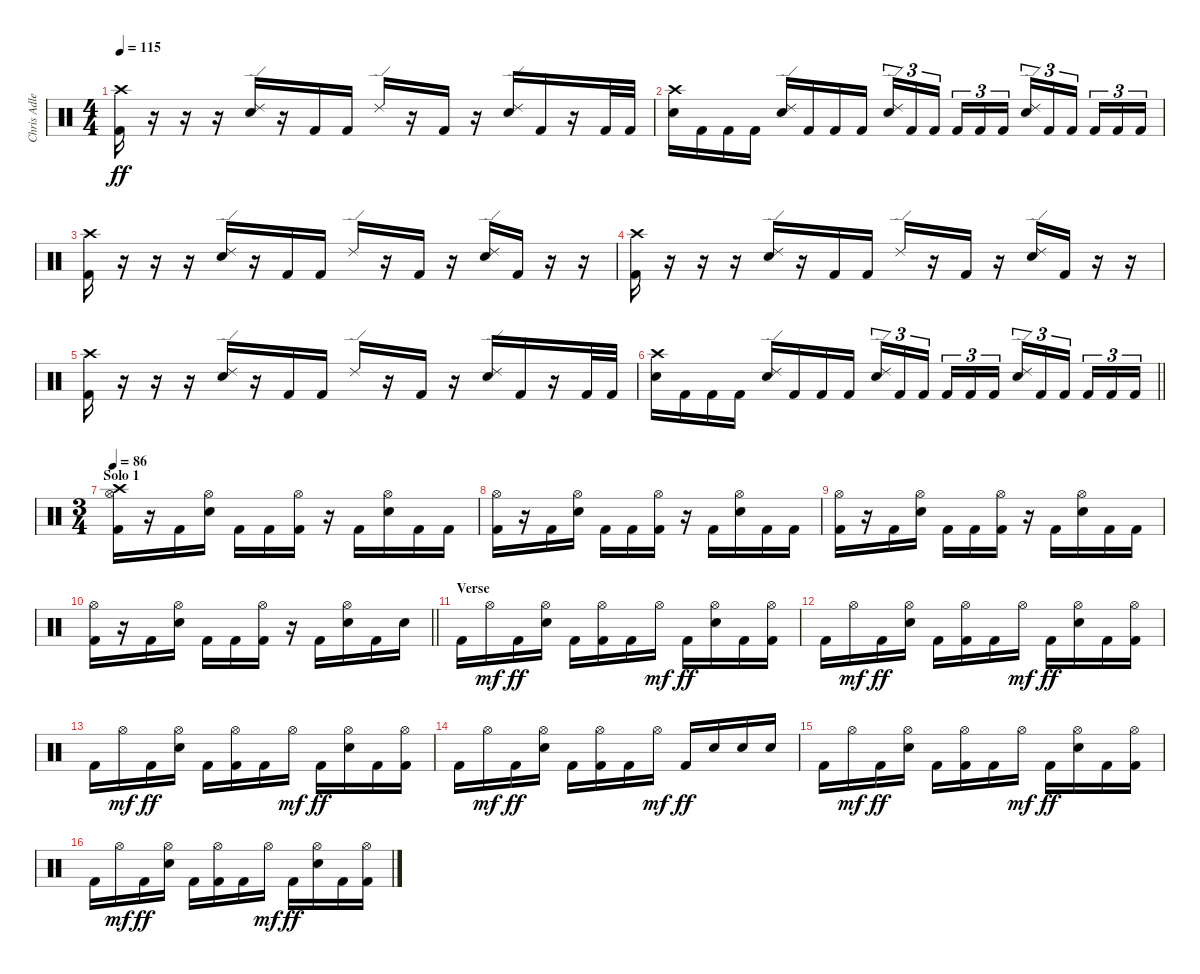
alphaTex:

\track ("Chris Adler" "Chris Adle") {instrument percussion}
\staff {score}
\articulation defaults
\ts (4 4)
\tempo 115
\clef neutral
\ks c
("Crash high (hit)" "Kick (hit) 2").16{dy ff} r.16 r.16 r.16 ("Ride (edge) 2" "Snare (hit) 2").16 r.16 "Kick (hit) 2".16 "Kick (hit) 2".16 "Ride (edge) 2".16 r.16 "Kick (hit) 2".16 r.16 ("Ride (edge) 2" "Snare (hit) 2").16 "Kick (hit) 2".16 r.16 "Kick (hit) 2".32 "Kick (hit) 2".32 |
("Crash high (hit)" "Snare (hit) 2").16 "Kick (hit) 2".16 "Kick (hit) 2".16 "Kick (hit) 2".16 ("Ride (edge) 2" "Snare (hit) 2").16 "Kick (hit) 2".16 "Kick (hit) 2".16 "Kick (hit) 2".16 ("Ride (edge) 2" "Snare (hit) 2").16{tu (3 2)} "Kick (hit) 2".16{tu (3 2)} "Kick (hit) 2".16{tu (3 2) beam splitsecondary} "Kick (hit) 2".16{tu (3 2)} "Kick (hit) 2".16{tu (3 2)} "Kick (hit) 2".16{tu (3 2)} ("Ride (edge) 2" "Snare (hit) 2").16{tu (3 2)} "Kick (hit) 2".16{tu (3 2)} "Kick (hit) 2".16{tu (3 2) beam splitsecondary} "Kick (hit) 2".16{tu (3 2)} "Kick (hit) 2".16{tu (3 2)} "Kick (hit) 2".16{tu (3 2)} |
("Crash high (hit)" "Kick (hit) 2").16 r.16 r.16 r.16 ("Ride (edge) 2" "Snare (hit) 2").16 r.16 "Kick (hit) 2".16 "Kick (hit) 2".16 "Ride (edge) 2".16 r.16 "Kick (hit) 2".16 r.16 ("Ride (edge) 2" "Snare (hit) 2").16 "Kick (hit) 2".16 r.16 r.16 |
("Crash high (hit)" "Kick (hit) 2").16 r.16 r.16 r.16 ("Ride (edge) 2" "Snare (hit) 2").16 r.16 "Kick (hit) 2".16 "Kick (hit) 2".16 "Ride (edge) 2".16 r.16 "Kick (hit) 2".16 r.16 ("Ride (edge) 2" "Snare (hit) 2").16 "Kick (hit) 2".16 r.16 r.16 |
("Crash high (hit)" "Kick (hit) 2").16 r.16 r.16 r.16 ("Ride (edge) 2" "Snare (hit) 2").16 r.16 "Kick (hit) 2".16 "Kick (hit) 2".16 "Ride (edge) 2".16 r.16 "Kick (hit) 2".16 r.16 ("Ride (edge) 2" "Snare (hit) 2").16 "Kick (hit) 2".16 r.16 "Kick (hit) 2".32 "Kick (hit) 2".32 |
\barLineRight lightlight
("Crash high (hit)" "Snare (hit) 2").16 "Kick (hit) 2".16 "Kick (hit) 2".16 "Kick (hit) 2".16 ("Ride (edge) 2" "Snare (hit) 2").16 "Kick (hit) 2".16 "Kick (hit) 2".16 "Kick (hit) 2".16 ("Ride (edge) 2" "Snare (hit) 2").16{tu (3 2)} "Kick (hit) 2".16{tu (3 2)} "Kick (hit) 2".16{tu (3 2) beam splitsecondary} "Kick (hit) 2".16{tu (3 2)} "Kick (hit) 2".16{tu (3 2)} "Kick (hit) 2".16{tu (3 2)} ("Ride (edge) 2" "Snare (hit) 2").16{tu (3 2)} "Kick (hit) 2".16{tu (3 2)} "Kick (hit) 2".16{tu (3 2) beam splitsecondary} "Kick (hit) 2".16{tu (3 2)} "Kick (hit) 2".16{tu (3 2)} "Kick (hit) 2".16{tu (3 2)} |
\ts (3 4)
\section ("" "Solo 1")
\tempo 86
("Crash high (hit)" "Hi-Hat (open)" "Kick (hit) 2").16 r.16 "Kick (hit) 2".16 ("Hi-Hat (open)" "Snare (hit) 2").16 "Kick (hit) 2".16 "Kick (hit) 2".16 ("Hi-Hat (open)" "Kick (hit) 2").16 r.16 "Kick (hit) 2".16 ("Hi-Hat (open)" "Snare (hit) 2").16 "Kick (hit) 2".16 "Kick (hit) 2".16 |
("Hi-Hat (open)" "Kick (hit) 2").16 r.16 "Kick (hit) 2".16 ("Hi-Hat (open)" "Snare (hit) 2").16 "Kick (hit) 2".16 "Kick (hit) 2".16 ("Hi-Hat (open)" "Kick (hit) 2").16 r.16 "Kick (hit) 2".16 ("Hi-Hat (open)" "Snare (hit) 2").16 "Kick (hit) 2".16 "Kick (hit) 2".16 |
("Hi-Hat (open)" "Kick (hit) 2").16 r.16 "Kick (hit) 2".16 ("Hi-Hat (open)" "Snare (hit) 2").16 "Kick (hit) 2".16 "Kick (hit) 2".16 ("Hi-Hat (open)" "Kick (hit) 2").16 r.16 "Kick (hit) 2".16 ("Hi-Hat (open)" "Snare (hit) 2").16 "Kick (hit) 2".16 "Kick (hit) 2".16 |
\barLineRight lightlight
("Hi-Hat (open)" "Kick (hit) 2").16 r.16 "Kick (hit) 2".16 ("Hi-Hat (open)" "Snare (hit) 2").16 "Kick (hit) 2".16 "Kick (hit) 2".16 ("Hi-Hat (open)" "Kick (hit) 2").16 r.16 "Kick (hit) 2".16 ("Hi-Hat (open)" "Snare (hit) 2").16 "Kick (hit) 2".16 "Snare (hit) 2".16 |
\section ("" "Verse")
"Kick (hit) 2".16 "Hi-Hat (open)".16{dy mf} "Kick (hit) 2".16{dy ff} ("Hi-Hat (open)" "Snare (hit) 2").16 "Kick (hit) 2".16 ("Hi-Hat (open)" "Kick (hit) 2").16 "Kick (hit) 2".16 "Hi-Hat (open)".16{dy mf} "Kick (hit) 2".16{dy ff} ("Hi-Hat (open)" "Snare (hit) 2").16 "Kick (hit) 2".16 ("Hi-Hat (open)" "Kick (hit) 2").16 |
"Kick (hit) 2".16 "Hi-Hat (open)".16{dy mf} "Kick (hit) 2".16{dy ff} ("Hi-Hat (open)" "Snare (hit) 2").16 "Kick (hit) 2".16 ("Hi-Hat (open)" "Kick (hit) 2").16 "Kick (hit) 2".16 "Hi-Hat (open)".16{dy mf} "Kick (hit) 2".16{dy ff} ("Hi-Hat (open)" "Snare (hit) 2").16 "Kick (hit) 2".16 ("Hi-Hat (open)" "Kick (hit) 2").16 |
"Kick (hit) 2".16 "Hi-Hat (open)".16{dy mf} "Kick (hit) 2".16{dy ff} ("Hi-Hat (open)" "Snare (hit) 2").16 "Kick (hit) 2".16 ("Hi-Hat (open)" "Kick (hit) 2").16 "Kick (hit) 2".16 "Hi-Hat (open)".16{dy mf} "Kick (hit) 2".16{dy ff} ("Hi-Hat (open)" "Snare (hit) 2").16 "Kick (hit) 2".16 ("Hi-Hat (open)" "Kick (hit) 2").16 |
"Kick (hit) 2".16 "Hi-Hat (open)".16{dy mf} "Kick (hit) 2".16{dy ff} ("Hi-Hat (open)" "Snare (hit) 2").16 "Kick (hit) 2".16 ("Hi-Hat (open)" "Kick (hit) 2").16 "Kick (hit) 2".16 "Hi-Hat (open)".16{dy mf} "Kick (hit) 2".16{dy ff} "Snare (hit) 2".16 "Snare (hit) 2".16 "Snare (hit) 2".16 |
"Kick (hit) 2".16 "Hi-Hat (open)".16{dy mf} "Kick (hit) 2".16{dy ff} ("Hi-Hat (open)" "Snare (hit) 2").16 "Kick (hit) 2".16 ("Hi-Hat (open)" "Kick (hit) 2").16 "Kick (hit) 2".16 "Hi-Hat (open)".16{dy mf} "Kick (hit) 2".16{dy ff} ("Hi-Hat (open)" "Snare (hit) 2").16 "Kick (hit) 2".16 ("Hi-Hat (open)" "Kick (hit) 2").16 |
"Kick (hit) 2".16 "Hi-Hat (open)".16{dy mf} "Kick (hit) 2".16{dy ff} ("Hi-Hat (open)" "Snare (hit) 2").16 "Kick (hit) 2".16 ("Hi-Hat (open)" "Kick (hit) 2").16 "Kick (hit) 2".16 "Hi-Hat (open)".16{dy mf} "Kick (hit) 2".16{dy ff} ("Hi-Hat (open)" "Snare (hit) 2").16 "Kick (hit) 2".16 ("Hi-Hat (open)" "Kick (hit) 2").16
